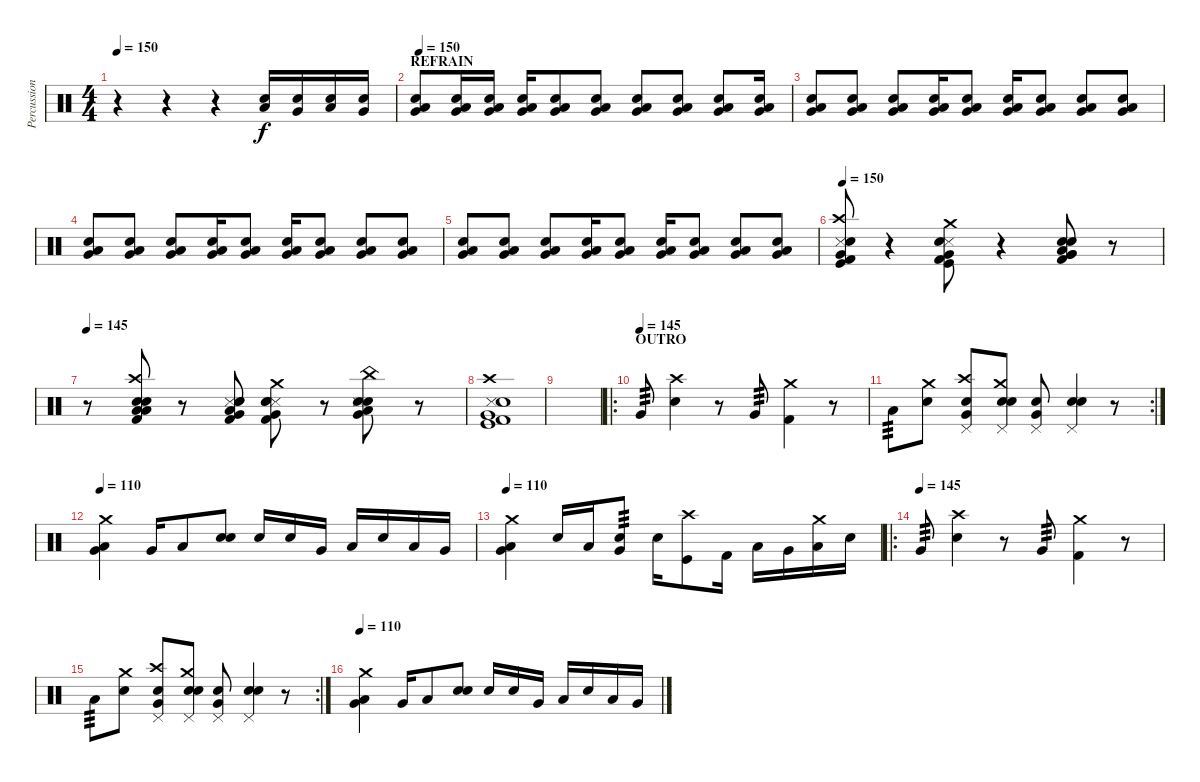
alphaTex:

\track ("Percussion-group" "Percussion") {instrument percussion}
\staff {score}
\articulation defaults
\ts (4 4)
\tempo 150
\clef neutral
\ks c
r.4{dy f} r.4 r.4 ("Low Tom (hit)" "Electric Snare (hit)").16 ("Very Low Tom (hit)" "Snare (hit) 2").16 ("Low Tom (hit)" "Electric Snare (hit)").16 ("Very Low Tom (hit)" "Snare (hit) 2").16 |
\section ("" "REFRAIN")
\tempo 150
("Low Tom (hit)" "Very Low Tom (hit)" "Electric Snare (hit)").8 ("Low Tom (hit)" "Very Low Tom (hit)" "Electric Snare (hit)").16 ("Low Tom (hit)" "Very Low Tom (hit)" "Electric Snare (hit)").16 ("Low Tom (hit)" "Very Low Tom (hit)" "Electric Snare (hit)").16 ("Low Tom (hit)" "Very Low Tom (hit)" "Electric Snare (hit)").8 ("Low Tom (hit)" "Very Low Tom (hit)" "Electric Snare (hit)").8 ("Low Tom (hit)" "Very Low Tom (hit)" "Electric Snare (hit)").8 ("Low Tom (hit)" "Very Low Tom (hit)" "Electric Snare (hit)").8 ("Low Tom (hit)" "Very Low Tom (hit)" "Electric Snare (hit)").8 ("Low Tom (hit)" "Very Low Tom (hit)" "Electric Snare (hit)").16 |
("Low Tom (hit)" "Very Low Tom (hit)" "Electric Snare (hit)").8 ("Low Tom (hit)" "Very Low Tom (hit)" "Electric Snare (hit)").8 ("Low Tom (hit)" "Very Low Tom (hit)" "Electric Snare (hit)").8 ("Low Tom (hit)" "Very Low Tom (hit)" "Electric Snare (hit)").16 ("Low Tom (hit)" "Very Low Tom (hit)" "Electric Snare (hit)").8 ("Low Tom (hit)" "Very Low Tom (hit)" "Electric Snare (hit)").16 ("Low Tom (hit)" "Very Low Tom (hit)" "Electric Snare (hit)").8 ("Low Tom (hit)" "Very Low Tom (hit)" "Electric Snare (hit)").8 ("Low Tom (hit)" "Very Low Tom (hit)" "Electric Snare (hit)").8 |
("Low Tom (hit)" "Very Low Tom (hit)" "Electric Snare (hit)").8 ("Low Tom (hit)" "Very Low Tom (hit)" "Electric Snare (hit)").8 ("Low Tom (hit)" "Very Low Tom (hit)" "Electric Snare (hit)").8 ("Low Tom (hit)" "Very Low Tom (hit)" "Electric Snare (hit)").16 ("Low Tom (hit)" "Very Low Tom (hit)" "Electric Snare (hit)").8 ("Low Tom (hit)" "Very Low Tom (hit)" "Electric Snare (hit)").16 ("Low Tom (hit)" "Very Low Tom (hit)" "Electric Snare (hit)").8 ("Low Tom (hit)" "Very Low Tom (hit)" "Electric Snare (hit)").8 ("Low Tom (hit)" "Very Low Tom (hit)" "Electric Snare (hit)").8 |
("Low Tom (hit)" "Very Low Tom (hit)" "Electric Snare (hit)").8 ("Low Tom (hit)" "Very Low Tom (hit)" "Electric Snare (hit)").8 ("Low Tom (hit)" "Very Low Tom (hit)" "Electric Snare (hit)").8 ("Low Tom (hit)" "Very Low Tom (hit)" "Electric Snare (hit)").16 ("Low Tom (hit)" "Very Low Tom (hit)" "Electric Snare (hit)").8 ("Low Tom (hit)" "Very Low Tom (hit)" "Electric Snare (hit)").16 ("Low Tom (hit)" "Very Low Tom (hit)" "Electric Snare (hit)").8 ("Low Tom (hit)" "Very Low Tom (hit)" "Electric Snare (hit)").8 ("Low Tom (hit)" "Very Low Tom (hit)" "Electric Snare (hit)").8 |
\tempo 150
("Very Low Tom (hit)" "Crash high (hit)" "Kick (hit)" "Metronome (hit)" "Kick (hit) 2" "Electric Snare (hit)").8 r.4 ("Very Low Tom (hit)" "Kick (hit)" "Crash medium (hit)" "Metronome (hit)" "Kick (hit) 2" "Electric Snare (hit)").8 r.4 ("Very Low Tom (hit)" "Very Low Tom (hit)" "Low Tom (hit)" "Kick (hit) 2" "Snare (hit) 2" "Electric Snare (hit)").8 r.8 |
\tempo 145
r.8 ("Low Tom (hit)" "Low Tom (hit)" "Crash high (hit)" "Kick (hit) 2" "Snare (hit) 2" "Electric Snare (hit)").8 r.8 ("Very Low Tom (hit)" "Low Tom (hit)" "Metronome (hit)" "Kick (hit) 2" "Snare (hit) 2" "Electric Snare (hit)").8 ("Very Low Tom (hit)" "Metronome (hit)" "Kick (hit) 2" "Crash medium (hit)" "Snare (hit) 2" "Electric Snare (hit)").8 r.8 ("Very Low Tom (hit)" "Low Tom (hit)" "Snare (hit) 2" "Electric Snare (hit)" "Metronome (hit)" "China (hit)").8 r.8 |
("Very Low Tom (hit)" "Crash high (hit)" "Kick (hit)" "Metronome (hit)" "Kick (hit) 2" "Electric Snare (hit)").1 |
|
\ro
\section ("" "OUTRO")
\tempo (145)
"Very Low Tom (hit)".8{tp 3} ("Snare (hit) 2" "Crash high (hit)").4 r.8 "Very Low Tom (hit)".8{tp 3} ("Kick (hit) 2" "Crash medium (hit)").4 r.8 |
\rc 2 "Low Tom (hit)".8{tp 3}
("Snare (hit) 2" "Crash medium (hit)").8 ("Electric Snare (hit)" "Very Low Tom (hit)" "Pedal Hi-Hat (hit)" "Crash high (hit)").8 ("Snare (hit) 2" "Electric Snare (hit)" "Pedal Hi-Hat (hit)" "Crash medium (hit)").8 ("Electric Snare (hit)" "Very Low Tom (hit)" "Pedal Hi-Hat (hit)").8 ("Snare (hit) 2" "Electric Snare (hit)" "Pedal Hi-Hat (hit)").4 r.8 |
\tempo 120
\tempo 110
("Very Low Tom (hit)" "Low Tom (hit)" "Crash medium (hit)").4 "Very Low Tom (hit)".16 "Low Tom (hit)".8 ("Electric Snare (hit)" "Snare (hit) 2").8 "Snare (hit) 2".16 "Electric Snare (hit)".16 "Very Low Tom (hit)".16 "Low Tom (hit)".16 "Electric Snare (hit)".16 "Low Tom (hit)".16 "Very Low Tom (hit)".16 |
\tempo 120
\tempo 110
("Very Low Tom (hit)" "Low Tom (hit)" "Crash medium (hit)").4 "Electric Snare (hit)".16 "Low Tom (hit)".16 ("Very Low Tom (hit)" "Snare (hit) 2").8{tp 3} "Snare (hit) 2".16 ("Kick (hit)" "Crash high (hit)").8 "Kick (hit) 2".16 "Low Tom (hit)".16 "Very Low Tom (hit)".16 ("Low Tom (hit)" "Crash medium (hit)").16 "Electric Snare (hit)".16 |
\ro
\tempo (145)
"Very Low Tom (hit)".8{tp 3} ("Snare (hit) 2" "Crash high (hit)").4 r.8 "Very Low Tom (hit)".8{tp 3} ("Kick (hit) 2" "Crash medium (hit)").4 r.8 |
\rc 2 "Low Tom (hit)".8{tp 3}
("Snare (hit) 2" "Crash medium (hit)").8 ("Electric Snare (hit)" "Very Low Tom (hit)" "Pedal Hi-Hat (hit)" "Crash high (hit)").8 ("Snare (hit) 2" "Electric Snare (hit)" "Pedal Hi-Hat (hit)" "Crash medium (hit)").8 ("Electric Snare (hit)" "Very Low Tom (hit)" "Pedal Hi-Hat (hit)").8 ("Snare (hit) 2" "Electric Snare (hit)" "Pedal Hi-Hat (hit)").4 r.8 |
\tempo 110
("Very Low Tom (hit)" "Low Tom (hit)" "Crash medium (hit)").4 "Very Low Tom (hit)".16 "Low Tom (hit)".8 ("Electric Snare (hit)" "Snare (hit) 2").8 "Snare (hit) 2".16 "Electric Snare (hit)".16 "Very Low Tom (hit)".16 "Low Tom (hit)".16 "Electric Snare (hit)".16 "Low Tom (hit)".16 "Very Low Tom (hit)".16
